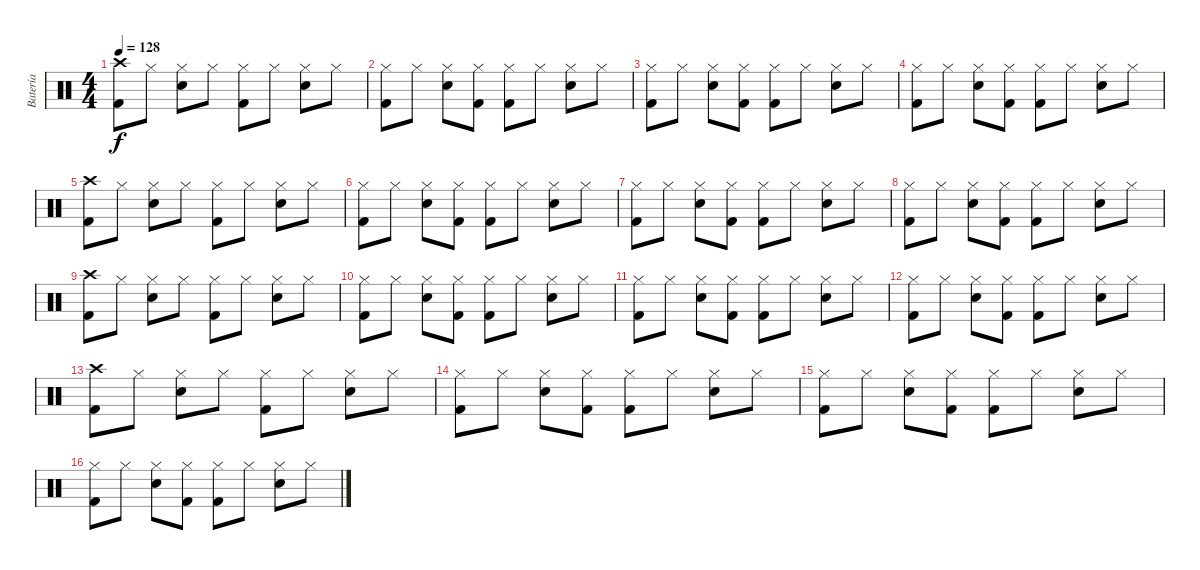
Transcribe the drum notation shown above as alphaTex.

\track ("Batería" "Batería") {instrument percussion}
\staff {score}
\articulation defaults
\ts (4 4)
\tempo 128
\clef neutral
\ks c
("Kick (hit) 2" "Crash high (hit)").8{dy f} "Hi-Hat (closed)".8 ("Hi-Hat (closed)" "Electric Snare (hit)").8 "Hi-Hat (closed)".8 ("Hi-Hat (closed)" "Kick (hit) 2").8 "Hi-Hat (closed)".8 ("Hi-Hat (closed)" "Electric Snare (hit)").8 "Hi-Hat (closed)".8 |
("Hi-Hat (closed)" "Kick (hit) 2").8 "Hi-Hat (closed)".8 ("Hi-Hat (closed)" "Electric Snare (hit)").8 ("Hi-Hat (closed)" "Kick (hit) 2").8 ("Hi-Hat (closed)" "Kick (hit) 2").8 "Hi-Hat (closed)".8 ("Hi-Hat (closed)" "Electric Snare (hit)").8 "Hi-Hat (closed)".8 |
("Hi-Hat (closed)" "Kick (hit) 2").8 "Hi-Hat (closed)".8 ("Hi-Hat (closed)" "Electric Snare (hit)").8 ("Hi-Hat (closed)" "Kick (hit) 2").8 ("Hi-Hat (closed)" "Kick (hit) 2").8 "Hi-Hat (closed)".8 ("Hi-Hat (closed)" "Electric Snare (hit)").8 "Hi-Hat (closed)".8 |
("Hi-Hat (closed)" "Kick (hit) 2").8 "Hi-Hat (closed)".8 ("Hi-Hat (closed)" "Electric Snare (hit)").8 ("Hi-Hat (closed)" "Kick (hit) 2").8 ("Hi-Hat (closed)" "Kick (hit) 2").8 "Hi-Hat (closed)".8 ("Hi-Hat (closed)" "Electric Snare (hit)").8 "Hi-Hat (closed)".8 |
("Kick (hit) 2" "Crash high (hit)").8 "Hi-Hat (closed)".8 ("Hi-Hat (closed)" "Electric Snare (hit)").8 "Hi-Hat (closed)".8 ("Hi-Hat (closed)" "Kick (hit) 2").8 "Hi-Hat (closed)".8 ("Hi-Hat (closed)" "Electric Snare (hit)").8 "Hi-Hat (closed)".8 |
("Hi-Hat (closed)" "Kick (hit) 2").8 "Hi-Hat (closed)".8 ("Hi-Hat (closed)" "Electric Snare (hit)").8 ("Hi-Hat (closed)" "Kick (hit) 2").8 ("Hi-Hat (closed)" "Kick (hit) 2").8 "Hi-Hat (closed)".8 ("Hi-Hat (closed)" "Electric Snare (hit)").8 "Hi-Hat (closed)".8 |
("Hi-Hat (closed)" "Kick (hit) 2").8 "Hi-Hat (closed)".8 ("Hi-Hat (closed)" "Electric Snare (hit)").8 ("Hi-Hat (closed)" "Kick (hit) 2").8 ("Hi-Hat (closed)" "Kick (hit) 2").8 "Hi-Hat (closed)".8 ("Hi-Hat (closed)" "Electric Snare (hit)").8 "Hi-Hat (closed)".8 |
("Hi-Hat (closed)" "Kick (hit) 2").8 "Hi-Hat (closed)".8 ("Hi-Hat (closed)" "Electric Snare (hit)").8 ("Hi-Hat (closed)" "Kick (hit) 2").8 ("Hi-Hat (closed)" "Kick (hit) 2").8 "Hi-Hat (closed)".8 ("Hi-Hat (closed)" "Electric Snare (hit)").8 "Hi-Hat (closed)".8 |
("Kick (hit) 2" "Crash high (hit)").8 "Hi-Hat (closed)".8 ("Hi-Hat (closed)" "Electric Snare (hit)").8 "Hi-Hat (closed)".8 ("Hi-Hat (closed)" "Kick (hit) 2").8 "Hi-Hat (closed)".8 ("Hi-Hat (closed)" "Electric Snare (hit)").8 "Hi-Hat (closed)".8 |
("Hi-Hat (closed)" "Kick (hit) 2").8 "Hi-Hat (closed)".8 ("Hi-Hat (closed)" "Electric Snare (hit)").8 ("Hi-Hat (closed)" "Kick (hit) 2").8 ("Hi-Hat (closed)" "Kick (hit) 2").8 "Hi-Hat (closed)".8 ("Hi-Hat (closed)" "Electric Snare (hit)").8 "Hi-Hat (closed)".8 |
("Hi-Hat (closed)" "Kick (hit) 2").8 "Hi-Hat (closed)".8 ("Hi-Hat (closed)" "Electric Snare (hit)").8 ("Hi-Hat (closed)" "Kick (hit) 2").8 ("Hi-Hat (closed)" "Kick (hit) 2").8 "Hi-Hat (closed)".8 ("Hi-Hat (closed)" "Electric Snare (hit)").8 "Hi-Hat (closed)".8 |
("Hi-Hat (closed)" "Kick (hit) 2").8 "Hi-Hat (closed)".8 ("Hi-Hat (closed)" "Electric Snare (hit)").8 ("Hi-Hat (closed)" "Kick (hit) 2").8 ("Hi-Hat (closed)" "Kick (hit) 2").8 "Hi-Hat (closed)".8 ("Hi-Hat (closed)" "Electric Snare (hit)").8 "Hi-Hat (closed)".8 |
("Kick (hit) 2" "Crash high (hit)").8 "Hi-Hat (closed)".8 ("Hi-Hat (closed)" "Electric Snare (hit)").8 "Hi-Hat (closed)".8 ("Hi-Hat (closed)" "Kick (hit) 2").8 "Hi-Hat (closed)".8 ("Hi-Hat (closed)" "Electric Snare (hit)").8 "Hi-Hat (closed)".8 |
("Hi-Hat (closed)" "Kick (hit) 2").8 "Hi-Hat (closed)".8 ("Hi-Hat (closed)" "Electric Snare (hit)").8 ("Hi-Hat (closed)" "Kick (hit) 2").8 ("Hi-Hat (closed)" "Kick (hit) 2").8 "Hi-Hat (closed)".8 ("Hi-Hat (closed)" "Electric Snare (hit)").8 "Hi-Hat (closed)".8 |
("Hi-Hat (closed)" "Kick (hit) 2").8 "Hi-Hat (closed)".8 ("Hi-Hat (closed)" "Electric Snare (hit)").8 ("Hi-Hat (closed)" "Kick (hit) 2").8 ("Hi-Hat (closed)" "Kick (hit) 2").8 "Hi-Hat (closed)".8 ("Hi-Hat (closed)" "Electric Snare (hit)").8 "Hi-Hat (closed)".8 |
("Hi-Hat (closed)" "Kick (hit) 2").8 "Hi-Hat (closed)".8 ("Hi-Hat (closed)" "Electric Snare (hit)").8 ("Hi-Hat (closed)" "Kick (hit) 2").8 ("Hi-Hat (closed)" "Kick (hit) 2").8 "Hi-Hat (closed)".8 ("Hi-Hat (closed)" "Electric Snare (hit)").8 "Hi-Hat (closed)".8
